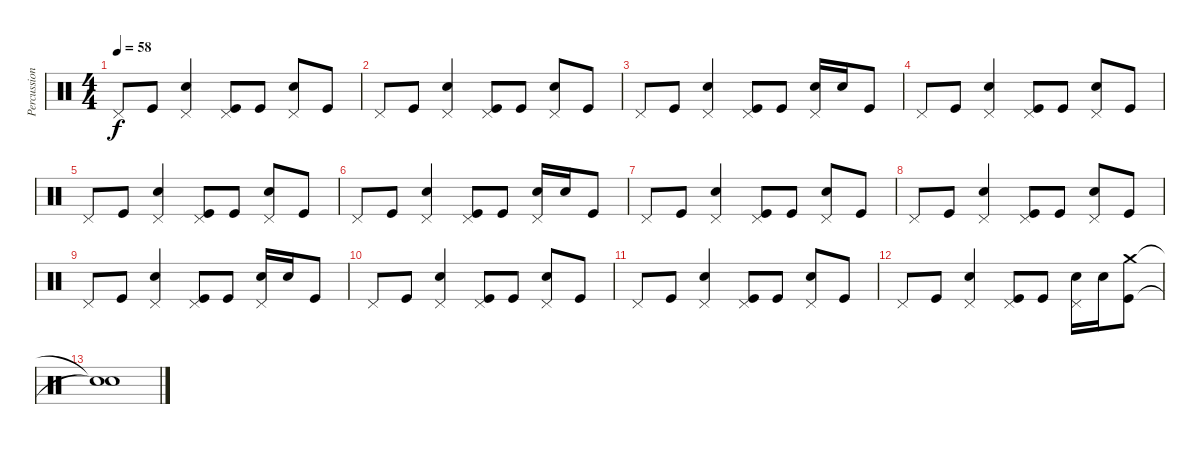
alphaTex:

\track ("Percussion" "Percussion") {instrument percussion}
\staff {score}
\articulation defaults
\ts (4 4)
\tempo 58
\clef neutral
\ks c "Pedal Hi-Hat (hit)".8{dy f} "Kick (hit)".8
("Pedal Hi-Hat (hit)" "Electric Snare (hit)").4 ("Pedal Hi-Hat (hit)" "Kick (hit)").8 "Kick (hit)".8 ("Pedal Hi-Hat (hit)" "Electric Snare (hit)").8 "Kick (hit)".8 |
"Pedal Hi-Hat (hit)".8 "Kick (hit)".8 ("Pedal Hi-Hat (hit)" "Electric Snare (hit)").4 ("Pedal Hi-Hat (hit)" "Kick (hit)").8 "Kick (hit)".8 ("Pedal Hi-Hat (hit)" "Electric Snare (hit)").8 "Kick (hit)".8 |
"Pedal Hi-Hat (hit)".8 "Kick (hit)".8 ("Pedal Hi-Hat (hit)" "Electric Snare (hit)").4 ("Pedal Hi-Hat (hit)" "Kick (hit)").8 "Kick (hit)".8 ("Pedal Hi-Hat (hit)" "Electric Snare (hit)").16 "Electric Snare (hit)".16 "Kick (hit)".8 |
"Pedal Hi-Hat (hit)".8 "Kick (hit)".8 ("Pedal Hi-Hat (hit)" "Electric Snare (hit)").4 ("Pedal Hi-Hat (hit)" "Kick (hit)").8 "Kick (hit)".8 ("Pedal Hi-Hat (hit)" "Electric Snare (hit)").8 "Kick (hit)".8 |
"Pedal Hi-Hat (hit)".8 "Kick (hit)".8 ("Pedal Hi-Hat (hit)" "Electric Snare (hit)").4 ("Pedal Hi-Hat (hit)" "Kick (hit)").8 "Kick (hit)".8 ("Pedal Hi-Hat (hit)" "Electric Snare (hit)").8 "Kick (hit)".8 |
"Pedal Hi-Hat (hit)".8 "Kick (hit)".8 ("Pedal Hi-Hat (hit)" "Electric Snare (hit)").4 ("Pedal Hi-Hat (hit)" "Kick (hit)").8 "Kick (hit)".8 ("Pedal Hi-Hat (hit)" "Electric Snare (hit)").16 "Electric Snare (hit)".16 "Kick (hit)".8 |
"Pedal Hi-Hat (hit)".8 "Kick (hit)".8 ("Pedal Hi-Hat (hit)" "Electric Snare (hit)").4 ("Pedal Hi-Hat (hit)" "Kick (hit)").8 "Kick (hit)".8 ("Pedal Hi-Hat (hit)" "Electric Snare (hit)").8 "Kick (hit)".8 |
"Pedal Hi-Hat (hit)".8 "Kick (hit)".8 ("Pedal Hi-Hat (hit)" "Electric Snare (hit)").4 ("Pedal Hi-Hat (hit)" "Kick (hit)").8 "Kick (hit)".8 ("Pedal Hi-Hat (hit)" "Electric Snare (hit)").8 "Kick (hit)".8 |
"Pedal Hi-Hat (hit)".8 "Kick (hit)".8 ("Pedal Hi-Hat (hit)" "Electric Snare (hit)").4 ("Pedal Hi-Hat (hit)" "Kick (hit)").8 "Kick (hit)".8 ("Pedal Hi-Hat (hit)" "Electric Snare (hit)").16 "Electric Snare (hit)".16 "Kick (hit)".8 |
"Pedal Hi-Hat (hit)".8 "Kick (hit)".8 ("Pedal Hi-Hat (hit)" "Electric Snare (hit)").4 ("Pedal Hi-Hat (hit)" "Kick (hit)").8 "Kick (hit)".8 ("Pedal Hi-Hat (hit)" "Electric Snare (hit)").8 "Kick (hit)".8 |
"Pedal Hi-Hat (hit)".8 "Kick (hit)".8 ("Pedal Hi-Hat (hit)" "Electric Snare (hit)").4 ("Pedal Hi-Hat (hit)" "Kick (hit)").8 "Kick (hit)".8 ("Pedal Hi-Hat (hit)" "Electric Snare (hit)").8 "Kick (hit)".8 |
"Pedal Hi-Hat (hit)".8 "Kick (hit)".8 ("Pedal Hi-Hat (hit)" "Electric Snare (hit)").4 ("Pedal Hi-Hat (hit)" "Kick (hit)").8 "Kick (hit)".8 ("Pedal Hi-Hat (hit)" "Electric Snare (hit)").16 "Electric Snare (hit)".16 ("Crash medium (hit)" "Kick (hit)").8 |
("Snare (hit)"{t} "Snare (hit)"{t}).1
